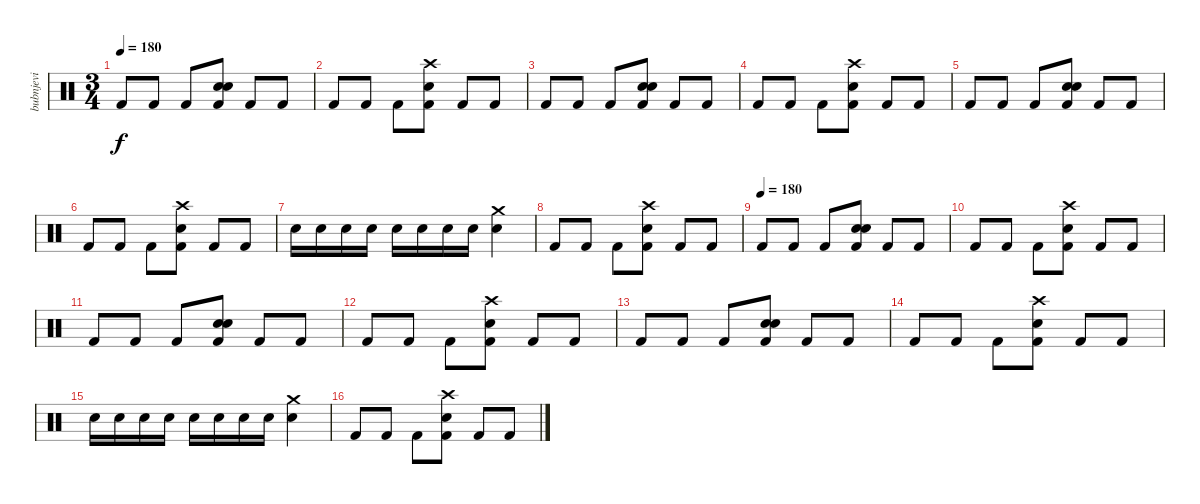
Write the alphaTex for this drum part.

\track ("bubnjevi" "bubnjevi") {instrument percussion}
\staff {score}
\articulation defaults
\ts (3 4)
\tempo 160
\tempo 180
\clef neutral
\ks c "Kick (hit) 2".8{dy f} "Kick (hit) 2".8 "Kick (hit) 2".8
("Electric Snare (hit)" "Electric Snare (hit)" "Kick (hit) 2").8 "Kick (hit) 2".8 "Kick (hit) 2".8 |
"Kick (hit) 2".8 "Kick (hit) 2".8 "Kick (hit) 2".8 ("Crash high (hit)" "Electric Snare (hit)" "Kick (hit) 2").8 "Kick (hit) 2".8 "Kick (hit) 2".8 |
"Kick (hit) 2".8 "Kick (hit) 2".8 "Kick (hit) 2".8 ("Electric Snare (hit)" "Electric Snare (hit)" "Kick (hit) 2").8 "Kick (hit) 2".8 "Kick (hit) 2".8 |
"Kick (hit) 2".8 "Kick (hit) 2".8 "Kick (hit) 2".8 ("Crash high (hit)" "Electric Snare (hit)" "Kick (hit) 2").8 "Kick (hit) 2".8 "Kick (hit) 2".8 |
"Kick (hit) 2".8 "Kick (hit) 2".8 "Kick (hit) 2".8 ("Electric Snare (hit)" "Electric Snare (hit)" "Kick (hit) 2").8 "Kick (hit) 2".8 "Kick (hit) 2".8 |
"Kick (hit) 2".8 "Kick (hit) 2".8 "Kick (hit) 2".8 ("Crash high (hit)" "Electric Snare (hit)" "Kick (hit) 2").8 "Kick (hit) 2".8 "Kick (hit) 2".8 |
"Snare (hit) 2".16 "Snare (hit) 2".16 "Snare (hit) 2".16 "Snare (hit) 2".16 "Snare (hit) 2".16 "Snare (hit) 2".16 "Snare (hit) 2".16 "Snare (hit) 2".16 ("Crash medium (hit)" "Snare (hit) 2").4 |
"Kick (hit) 2".8 "Kick (hit) 2".8 "Kick (hit) 2".8 ("Crash high (hit)" "Electric Snare (hit)" "Kick (hit) 2").8 "Kick (hit) 2".8 "Kick (hit) 2".8 |
\tempo (180)
"Kick (hit) 2".8 "Kick (hit) 2".8 "Kick (hit) 2".8 ("Electric Snare (hit)" "Electric Snare (hit)" "Kick (hit) 2").8 "Kick (hit) 2".8 "Kick (hit) 2".8 |
"Kick (hit) 2".8 "Kick (hit) 2".8 "Kick (hit) 2".8 ("Crash high (hit)" "Electric Snare (hit)" "Kick (hit) 2").8 "Kick (hit) 2".8 "Kick (hit) 2".8 |
"Kick (hit) 2".8 "Kick (hit) 2".8 "Kick (hit) 2".8 ("Electric Snare (hit)" "Electric Snare (hit)" "Kick (hit) 2").8 "Kick (hit) 2".8 "Kick (hit) 2".8 |
"Kick (hit) 2".8 "Kick (hit) 2".8 "Kick (hit) 2".8 ("Crash high (hit)" "Electric Snare (hit)" "Kick (hit) 2").8 "Kick (hit) 2".8 "Kick (hit) 2".8 |
"Kick (hit) 2".8 "Kick (hit) 2".8 "Kick (hit) 2".8 ("Electric Snare (hit)" "Electric Snare (hit)" "Kick (hit) 2").8 "Kick (hit) 2".8 "Kick (hit) 2".8 |
"Kick (hit) 2".8 "Kick (hit) 2".8 "Kick (hit) 2".8 ("Crash high (hit)" "Electric Snare (hit)" "Kick (hit) 2").8 "Kick (hit) 2".8 "Kick (hit) 2".8 |
"Snare (hit) 2".16 "Snare (hit) 2".16 "Snare (hit) 2".16 "Snare (hit) 2".16 "Snare (hit) 2".16 "Snare (hit) 2".16 "Snare (hit) 2".16 "Snare (hit) 2".16 ("Crash medium (hit)" "Snare (hit) 2").4 |
"Kick (hit) 2".8 "Kick (hit) 2".8 "Kick (hit) 2".8 ("Crash high (hit)" "Electric Snare (hit)" "Kick (hit) 2").8 "Kick (hit) 2".8 "Kick (hit) 2".8
